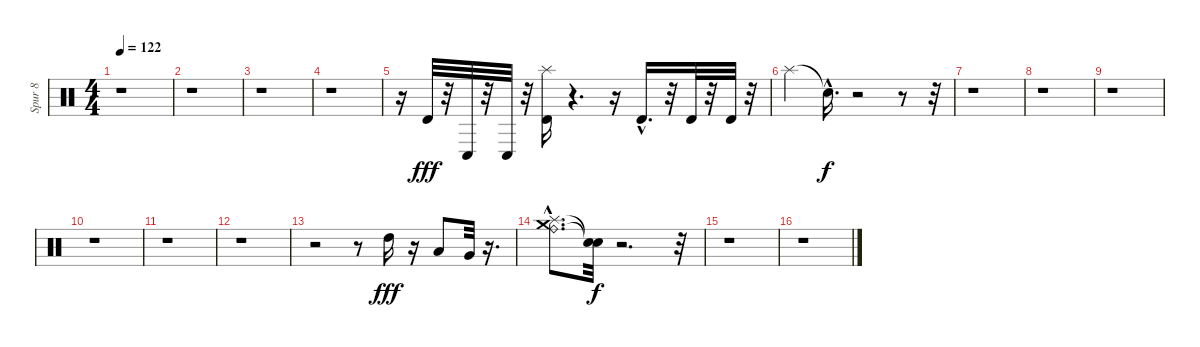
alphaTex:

\track ("Spur 8" "Spur 8") {instrument percussion}
\staff {score}
\articulation defaults
\ts (4 4)
\tempo 122
\clef neutral
\ks c
r.1{dy f} |
r.1 |
r.1 |
r.1 |
r.16 "Timbale high (hit)".32{dy fff} r.32 "Conga low (hit)".32 r.32 "Conga low (hit)".32 r.32 ("Splash (hit)" "Timbale high (hit)").16 r.4{d} r.16 "Timbale high (hit)"{hac}.16{d} r.32 "Timbale high (hit)".32 r.32 "Timbale high (hit)".32 r.32 |
"Splash (hit)".4 "Snare (hit)"{hac t}.16{d dy f} r.2 r.8 r.32 |
r.1 |
r.1 |
r.1 |
r.1 |
r.1 |
r.1 |
r.2 r.8 "High Tom (hit)".16{dy fff} r.16 "Low Tom (hit)".8 "Very Low Tom (hit)".32 r.16{d} |
("Splash (hit)"{hac} "Ride (bell)"{hac} "Crash medium (hit)"{hac}).8{d} ("Snare (hit)"{t} "Snare (hit)"{t}).32{dy f} r.2{d} r.32 |
r.1 |
r.1
